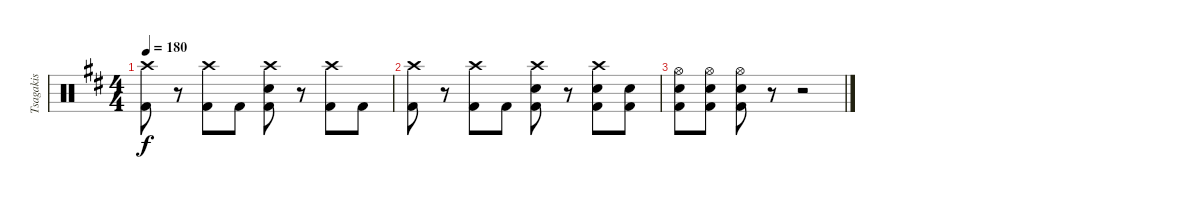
\track ("Tsagakis" "Tsagakis") {instrument percussion}
\staff {score}
\articulation defaults
\ts (4 4)
\tempo 180
\clef neutral
\ks d
("Crash high (hit)" "Kick (hit) 2").8{dy f} r.8 ("Crash high (hit)" "Kick (hit) 2").8 "Kick (hit) 2".8 ("Crash high (hit)" "Electric Snare (hit)" "Kick (hit) 2").8 r.8 ("Crash high (hit)" "Kick (hit) 2").8 "Kick (hit) 2".8 |
("Crash high (hit)" "Kick (hit) 2").8 r.8 ("Crash high (hit)" "Kick (hit) 2").8 "Kick (hit) 2".8 ("Crash high (hit)" "Electric Snare (hit)" "Kick (hit) 2").8 r.8 ("Crash high (hit)" "Electric Snare (hit)" "Kick (hit) 2").8 ("Electric Snare (hit)" "Kick (hit) 2").8 |
("Hi-Hat (open)" "Electric Snare (hit)" "Kick (hit) 2").8 ("Hi-Hat (open)" "Electric Snare (hit)" "Kick (hit) 2").8 ("Hi-Hat (open)" "Electric Snare (hit)" "Kick (hit) 2").8 r.8 r.2
